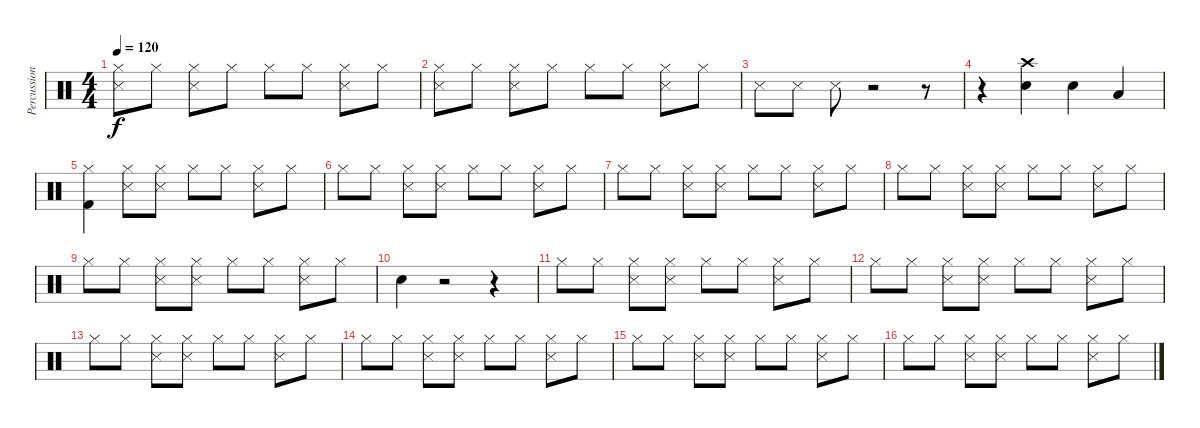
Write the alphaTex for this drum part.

\track ("Percussion" "Percussion") {instrument percussion}
\staff {score}
\articulation defaults
\ts (4 4)
\tempo 120
\clef neutral
\ks c
("Hi-Hat (closed)" "Snare (side stick) 3").8{dy f} "Hi-Hat (closed)".8 ("Hi-Hat (closed)" "Snare (side stick) 3").8 "Hi-Hat (closed)".8 "Hi-Hat (closed)".8 "Hi-Hat (closed)".8 ("Hi-Hat (closed)" "Snare (side stick) 3").8 "Hi-Hat (closed)".8 |
("Hi-Hat (closed)" "Snare (side stick) 3").8 "Hi-Hat (closed)".8 ("Hi-Hat (closed)" "Snare (side stick) 3").8 "Hi-Hat (closed)".8 "Hi-Hat (closed)".8 "Hi-Hat (closed)".8 ("Hi-Hat (closed)" "Snare (side stick) 3").8 "Hi-Hat (closed)".8 |
"Snare (side stick) 3".8 "Snare (side stick) 3".8 "Snare (side stick) 3".8 r.2 r.8 |
r.4 ("Crash high (hit)" "Snare (hit) 2").4 "Snare (hit) 2".4 "Low Tom (hit)".4 |
("Hi-Hat (closed)" "Kick (hit) 2").4 ("Hi-Hat (closed)" "Snare (side stick) 3").8 ("Hi-Hat (closed)" "Snare (side stick) 3").8 "Hi-Hat (closed)".8 "Hi-Hat (closed)".8 ("Hi-Hat (closed)" "Snare (side stick) 3").8 "Hi-Hat (closed)".8 |
"Hi-Hat (closed)".8 "Hi-Hat (closed)".8 ("Hi-Hat (closed)" "Snare (side stick) 3").8 ("Hi-Hat (closed)" "Snare (side stick) 3").8 "Hi-Hat (closed)".8 "Hi-Hat (closed)".8 ("Hi-Hat (closed)" "Snare (side stick) 3").8 "Hi-Hat (closed)".8 |
"Hi-Hat (closed)".8 "Hi-Hat (closed)".8 ("Hi-Hat (closed)" "Snare (side stick) 3").8 ("Hi-Hat (closed)" "Snare (side stick) 3").8 "Hi-Hat (closed)".8 "Hi-Hat (closed)".8 ("Hi-Hat (closed)" "Snare (side stick) 3").8 "Hi-Hat (closed)".8 |
"Hi-Hat (closed)".8 "Hi-Hat (closed)".8 ("Hi-Hat (closed)" "Snare (side stick) 3").8 ("Hi-Hat (closed)" "Snare (side stick) 3").8 "Hi-Hat (closed)".8 "Hi-Hat (closed)".8 ("Hi-Hat (closed)" "Snare (side stick) 3").8 "Hi-Hat (closed)".8 |
"Hi-Hat (closed)".8 "Hi-Hat (closed)".8 ("Hi-Hat (closed)" "Snare (side stick) 3").8 ("Hi-Hat (closed)" "Snare (side stick) 3").8 "Hi-Hat (closed)".8 "Hi-Hat (closed)".8 ("Hi-Hat (closed)" "Snare (side stick) 3").8 "Hi-Hat (closed)".8 |
"Snare (hit) 2".4 r.2 r.4 |
"Hi-Hat (closed)".8 "Hi-Hat (closed)".8 ("Hi-Hat (closed)" "Snare (side stick) 3").8 ("Hi-Hat (closed)" "Snare (side stick) 3").8 "Hi-Hat (closed)".8 "Hi-Hat (closed)".8 ("Hi-Hat (closed)" "Snare (side stick) 3").8 "Hi-Hat (closed)".8 |
"Hi-Hat (closed)".8 "Hi-Hat (closed)".8 ("Hi-Hat (closed)" "Snare (side stick) 3").8 ("Hi-Hat (closed)" "Snare (side stick) 3").8 "Hi-Hat (closed)".8 "Hi-Hat (closed)".8 ("Hi-Hat (closed)" "Snare (side stick) 3").8 "Hi-Hat (closed)".8 |
"Hi-Hat (closed)".8 "Hi-Hat (closed)".8 ("Hi-Hat (closed)" "Snare (side stick) 3").8 ("Hi-Hat (closed)" "Snare (side stick) 3").8 "Hi-Hat (closed)".8 "Hi-Hat (closed)".8 ("Hi-Hat (closed)" "Snare (side stick) 3").8 "Hi-Hat (closed)".8 |
"Hi-Hat (closed)".8 "Hi-Hat (closed)".8 ("Hi-Hat (closed)" "Snare (side stick) 3").8 ("Hi-Hat (closed)" "Snare (side stick) 3").8 "Hi-Hat (closed)".8 "Hi-Hat (closed)".8 ("Hi-Hat (closed)" "Snare (side stick) 3").8 "Hi-Hat (closed)".8 |
"Hi-Hat (closed)".8 "Hi-Hat (closed)".8 ("Hi-Hat (closed)" "Snare (side stick) 3").8 ("Hi-Hat (closed)" "Snare (side stick) 3").8 "Hi-Hat (closed)".8 "Hi-Hat (closed)".8 ("Hi-Hat (closed)" "Snare (side stick) 3").8 "Hi-Hat (closed)".8 |
"Hi-Hat (closed)".8 "Hi-Hat (closed)".8 ("Hi-Hat (closed)" "Snare (side stick) 3").8 ("Hi-Hat (closed)" "Snare (side stick) 3").8 "Hi-Hat (closed)".8 "Hi-Hat (closed)".8 ("Hi-Hat (closed)" "Snare (side stick) 3").8 "Hi-Hat (closed)".8
